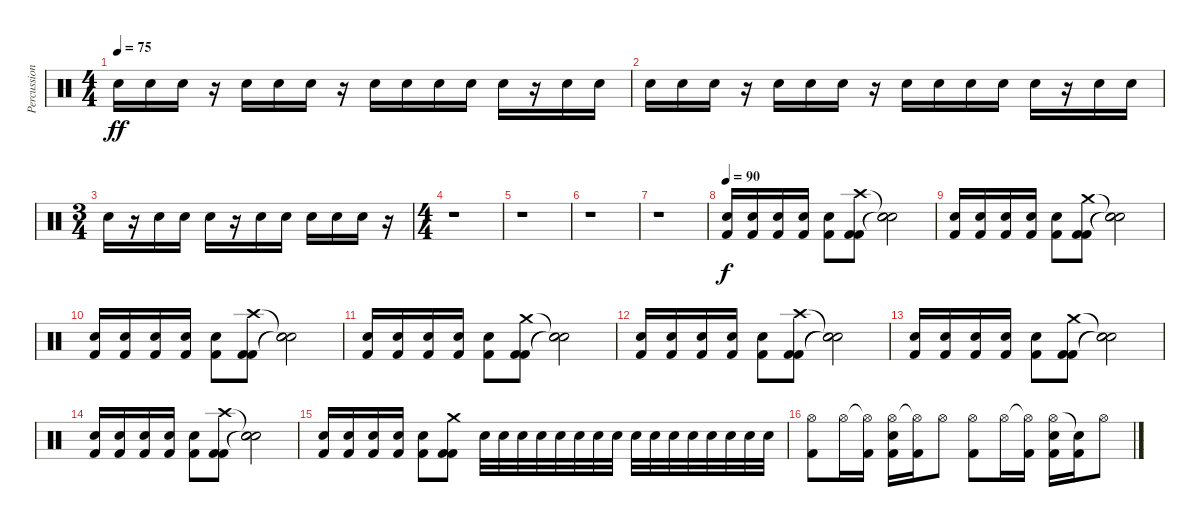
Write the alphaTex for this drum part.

\track ("Percussions" "Percussion") {instrument percussion}
\staff {score}
\articulation defaults
\ts (4 4)
\tempo 75
\clef neutral
\ks c "Electric Snare (hit)".16{dy ff} "Electric Snare (hit)".16 "Electric Snare (hit)".16
r.16 "Electric Snare (hit)".16 "Electric Snare (hit)".16 "Electric Snare (hit)".16 r.16 "Electric Snare (hit)".16 "Electric Snare (hit)".16 "Electric Snare (hit)".16 "Electric Snare (hit)".16 "Electric Snare (hit)".16 r.16 "Electric Snare (hit)".16 "Electric Snare (hit)".16 |
"Electric Snare (hit)".16 "Electric Snare (hit)".16 "Electric Snare (hit)".16 r.16 "Electric Snare (hit)".16 "Electric Snare (hit)".16 "Electric Snare (hit)".16 r.16 "Electric Snare (hit)".16 "Electric Snare (hit)".16 "Electric Snare (hit)".16 "Electric Snare (hit)".16 "Electric Snare (hit)".16 r.16 "Electric Snare (hit)".16 "Electric Snare (hit)".16 |
\ts (3 4)
"Electric Snare (hit)".16 r.16 "Electric Snare (hit)".16 "Electric Snare (hit)".16 "Electric Snare (hit)".16 r.16 "Electric Snare (hit)".16 "Electric Snare (hit)".16 "Electric Snare (hit)".16 "Electric Snare (hit)".16 "Electric Snare (hit)".16 r.16 |
\ts (4 4)
r.1 |
r.1 |
r.1 |
r.1 |
\tempo 90
("Electric Snare (hit)" "Kick (hit) 2").16{dy f} ("Electric Snare (hit)" "Kick (hit) 2").16 ("Electric Snare (hit)" "Kick (hit) 2").16 ("Electric Snare (hit)" "Kick (hit) 2").16 ("Electric Snare (hit)" "Kick (hit) 2").8 ("Crash high (hit)" "Kick (hit) 2" "Kick (hit) 2").8 ("Snare (hit)"{t} "Snare (hit)"{t} "Snare (hit)"{t}).2 |
("Electric Snare (hit)" "Kick (hit) 2").16 ("Electric Snare (hit)" "Kick (hit) 2").16 ("Electric Snare (hit)" "Kick (hit) 2").16 ("Electric Snare (hit)" "Kick (hit) 2").16 ("Electric Snare (hit)" "Kick (hit) 2").8 ("Crash medium (hit)" "Kick (hit) 2" "Kick (hit) 2").8 ("Snare (hit)"{t} "Snare (hit)"{t} "Snare (hit)"{t}).2 |
("Electric Snare (hit)" "Kick (hit) 2").16 ("Electric Snare (hit)" "Kick (hit) 2").16 ("Electric Snare (hit)" "Kick (hit) 2").16 ("Electric Snare (hit)" "Kick (hit) 2").16 ("Electric Snare (hit)" "Kick (hit) 2").8 ("Crash high (hit)" "Kick (hit) 2" "Kick (hit) 2").8 ("Snare (hit)"{t} "Snare (hit)"{t} "Snare (hit)"{t}).2 |
("Electric Snare (hit)" "Kick (hit) 2").16 ("Electric Snare (hit)" "Kick (hit) 2").16 ("Electric Snare (hit)" "Kick (hit) 2").16 ("Electric Snare (hit)" "Kick (hit) 2").16 ("Electric Snare (hit)" "Kick (hit) 2").8 ("Crash medium (hit)" "Kick (hit) 2" "Kick (hit) 2").8 ("Snare (hit)"{t} "Snare (hit)"{t} "Snare (hit)"{t}).2 |
("Electric Snare (hit)" "Kick (hit) 2").16 ("Electric Snare (hit)" "Kick (hit) 2").16 ("Electric Snare (hit)" "Kick (hit) 2").16 ("Electric Snare (hit)" "Kick (hit) 2").16 ("Electric Snare (hit)" "Kick (hit) 2").8 ("Crash high (hit)" "Kick (hit) 2" "Kick (hit) 2").8 ("Snare (hit)"{t} "Snare (hit)"{t} "Snare (hit)"{t}).2 |
("Electric Snare (hit)" "Kick (hit) 2").16 ("Electric Snare (hit)" "Kick (hit) 2").16 ("Electric Snare (hit)" "Kick (hit) 2").16 ("Electric Snare (hit)" "Kick (hit) 2").16 ("Electric Snare (hit)" "Kick (hit) 2").8 ("Crash medium (hit)" "Kick (hit) 2" "Kick (hit) 2").8 ("Snare (hit)"{t} "Snare (hit)"{t} "Snare (hit)"{t}).2 |
("Electric Snare (hit)" "Kick (hit) 2").16 ("Electric Snare (hit)" "Kick (hit) 2").16 ("Electric Snare (hit)" "Kick (hit) 2").16 ("Electric Snare (hit)" "Kick (hit) 2").16 ("Electric Snare (hit)" "Kick (hit) 2").8 ("Crash high (hit)" "Kick (hit) 2" "Kick (hit) 2").8 ("Snare (hit)"{t} "Snare (hit)"{t} "Snare (hit)"{t}).2 |
("Electric Snare (hit)" "Kick (hit) 2").16 ("Electric Snare (hit)" "Kick (hit) 2").16 ("Electric Snare (hit)" "Kick (hit) 2").16 ("Electric Snare (hit)" "Kick (hit) 2").16 ("Electric Snare (hit)" "Kick (hit) 2").8 ("Crash medium (hit)" "Kick (hit) 2" "Kick (hit) 2").8 "Electric Snare (hit)".32 "Electric Snare (hit)".32 "Electric Snare (hit)".32 "Electric Snare (hit)".32 "Electric Snare (hit)".32 "Electric Snare (hit)".32 "Electric Snare (hit)".32 "Electric Snare (hit)".32 "Electric Snare (hit)".32 "Electric Snare (hit)".32 "Electric Snare (hit)".32 "Electric Snare (hit)".32 "Electric Snare (hit)".32 "Electric Snare (hit)".32 "Electric Snare (hit)".32 "Electric Snare (hit)".32 |
("Hi-Hat (open)" "Kick (hit) 2").8 "Hi-Hat (open)".16 ("Hi-Hat (open)"{t} "Kick (hit) 2").16 ("Hi-Hat (open)" "Electric Snare (hit)" "Kick (hit) 2").16 ("Hi-Hat (open)"{t} "Kick (hit) 2").16 "Hi-Hat (open)".8 ("Hi-Hat (open)" "Kick (hit) 2").8 "Hi-Hat (open)".16 ("Hi-Hat (open)"{t} "Kick (hit) 2").16 ("Hi-Hat (open)" "Electric Snare (hit)" "Kick (hit) 2").16 ("Snare (hit)"{t} "Kick (hit) 2").16 "Hi-Hat (open)".8
